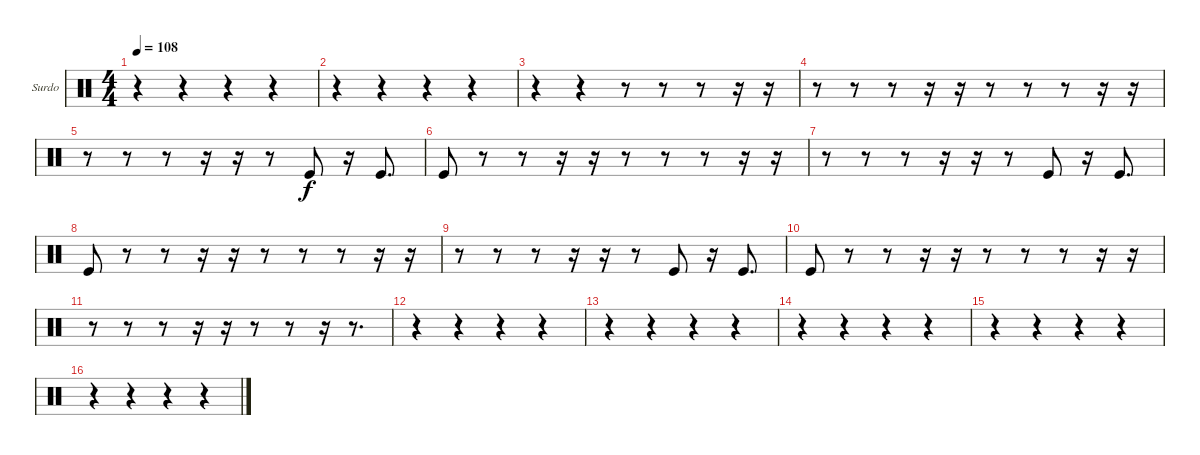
\bracketExtendMode groupsimilarinstruments
\firstSystemTrackNameOrientation horizontal
\otherSystemsTrackNameOrientation horizontal
\track ("Surdo" "Surdo") {instrument percussion}
\staff {score}
\articulation defaults
\ts (4 4)
\tempo 108
\clef neutral
\ks c
r.4{dy fff} r.4 r.4 r.4 |
r.4 r.4 r.4 r.4 |
r.4 r.4 r.8 r.8 r.8 r.16 r.16 |
r.8 r.8 r.8 r.16 r.16 r.8 r.8 r.8 r.16 r.16 |
r.8 r.8 r.8 r.16 r.16 r.8 "Kick (hit)".8{dy f} r.16 "Kick (hit)".8{d} |
"Kick (hit)".8 r.8 r.8 r.16 r.16 r.8 r.8 r.8 r.16 r.16 |
r.8 r.8 r.8 r.16 r.16 r.8 "Kick (hit)".8 r.16 "Kick (hit)".8{d} |
"Kick (hit)".8 r.8 r.8 r.16 r.16 r.8 r.8 r.8 r.16 r.16 |
r.8 r.8 r.8 r.16 r.16 r.8 "Kick (hit)".8 r.16 "Kick (hit)".8{d} |
"Kick (hit)".8 r.8 r.8 r.16 r.16 r.8 r.8 r.8 r.16 r.16 |
r.8 r.8 r.8 r.16 r.16 r.8 r.8 r.16 r.8{d} |
r.4 r.4 r.4 r.4 |
r.4 r.4 r.4 r.4 |
r.4 r.4 r.4 r.4 |
r.4 r.4 r.4 r.4 |
r.4 r.4 r.4 r.4
